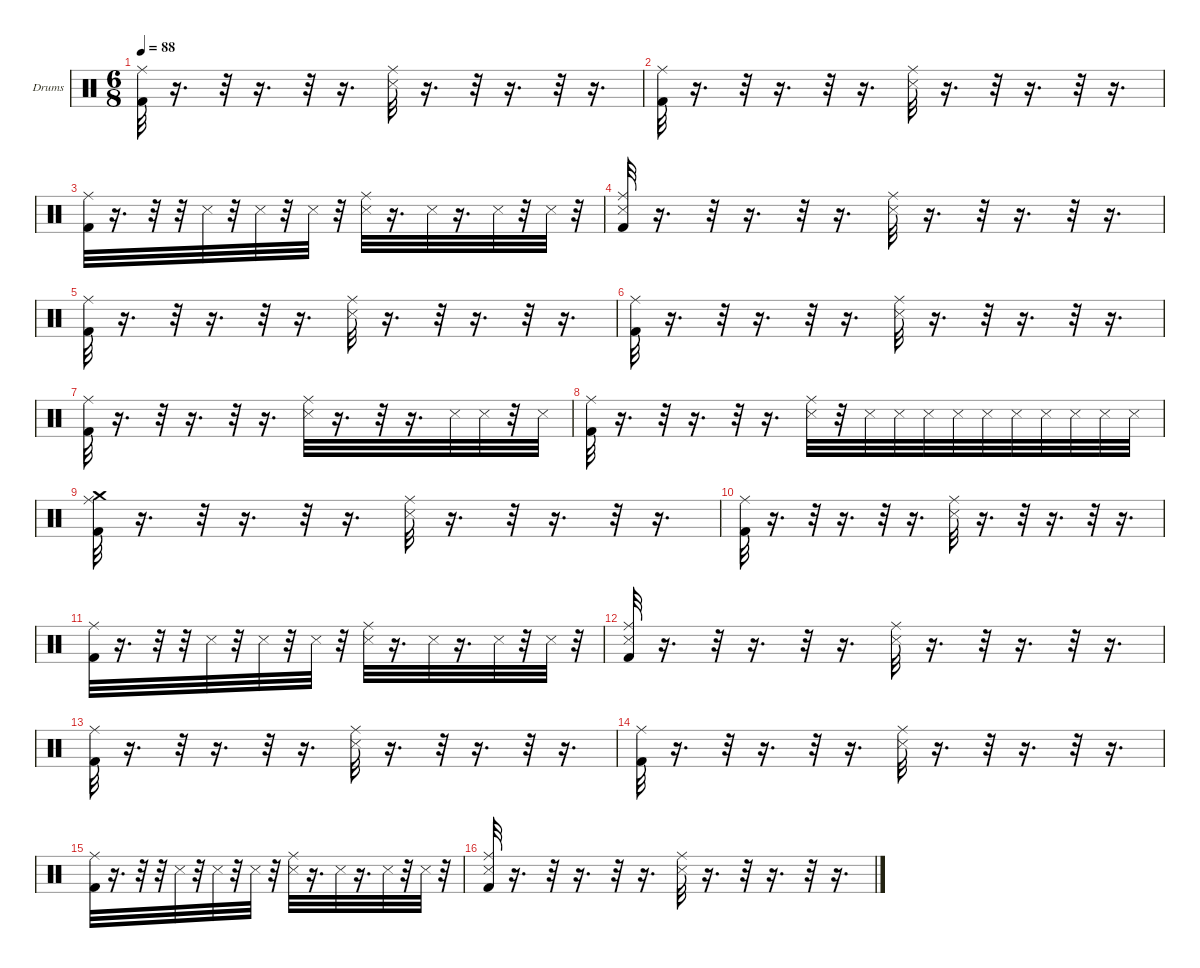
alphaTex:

\hideDynamics
\bracketExtendMode nobrackets
\firstSystemTrackNameOrientation horizontal
\otherSystemsTrackNameOrientation horizontal
\track ("Drumkit" "Drums") {instrument percussion}
\staff {score}
\articulation defaults
\ts (6 8)
\tempo 88
\clef neutral
\ks c
("Kick (hit) 2" "Ride (middle)").32{dy fff} r.16{d} r.32 r.16{d} r.32 r.16{d} ("Snare (side stick) 3" "Ride (middle)").32{dy ff} r.16{d} r.32 r.16{d} r.32 r.16{d} |
("Kick (hit) 2" "Ride (middle)").32{dy fff} r.16{d} r.32 r.16{d} r.32 r.16{d} ("Snare (side stick) 3" "Ride (middle)").32{dy ff} r.16{d} r.32 r.16{d} r.32 r.16{d} |
("Kick (hit) 2" "Ride (middle)").32{dy fff} r.16{d} r.32 r.32 "Snare (side stick) 3".32{dy f} r.32 "Snare (side stick) 3".32{dy ff} r.32 "Snare (side stick) 3".32{dy f} r.32 ("Snare (side stick) 3" "Ride (middle)").32{dy ff} r.16{d} "Snare (side stick) 3".32 r.16{d} "Snare (side stick) 3".32{dy f} r.32 "Snare (side stick) 3".32{dy mf} r.32 |
("Kick (hit) 2" "Snare (side stick) 3" "Ride (middle)").32{dy fff} r.16{d} r.32 r.16{d} r.32 r.16{d} ("Snare (side stick) 3" "Ride (middle)").32{dy ff} r.16{d} r.32 r.16{d} r.32 r.16{d} |
("Kick (hit) 2" "Ride (middle)").32{dy fff} r.16{d} r.32 r.16{d} r.32 r.16{d} ("Snare (side stick) 3" "Ride (middle)").32{dy ff} r.16{d} r.32 r.16{d} r.32 r.16{d} |
("Kick (hit) 2" "Ride (middle)").32{dy fff} r.16{d} r.32 r.16{d} r.32 r.16{d} ("Snare (side stick) 3" "Ride (middle)").32{dy ff} r.16{d} r.32 r.16{d} r.32 r.16{d} |
("Kick (hit) 2" "Ride (middle)").32{dy fff} r.16{d} r.32 r.16{d} r.32 r.16{d} ("Snare (side stick) 3" "Ride (middle)").32{dy ff} r.16{d} r.32 r.16{d} "Snare (side stick) 3".32{dy f} "Snare (side stick) 3".32{dy mf} r.32 "Snare (side stick) 3".32{dy f} |
("Kick (hit) 2" "Ride (middle)").32{dy fff} r.16{d} r.32 r.16{d} r.32 r.16{d} ("Snare (side stick) 3" "Ride (middle)").32{dy ff} r.32 "Snare (side stick) 3".32{dy p} "Snare (side stick) 3".32{dy mp} "Snare (side stick) 3".32{dy mf} "Snare (side stick) 3".32{dy mp} "Snare (side stick) 3".32{dy mf} "Snare (side stick) 3".32{dy f} "Snare (side stick) 3".32{dy mf} "Snare (side stick) 3".32{dy f} "Snare (side stick) 3".32{dy ff} "Snare (side stick) 3".32 |
("Kick (hit) 2" "Ride (middle)" "Crash medium (hit)").32{dy fff} r.16{d} r.32 r.16{d} r.32 r.16{d} ("Snare (side stick) 3" "Ride (middle)").32{dy ff} r.16{d} r.32 r.16{d} r.32 r.16{d} |
("Kick (hit) 2" "Ride (middle)").32{dy fff} r.16{d} r.32 r.16{d} r.32 r.16{d} ("Snare (side stick) 3" "Ride (middle)").32{dy ff} r.16{d} r.32 r.16{d} r.32 r.16{d} |
("Kick (hit) 2" "Ride (middle)").32{dy fff} r.16{d} r.32 r.32 "Snare (side stick) 3".32{dy f} r.32 "Snare (side stick) 3".32{dy ff} r.32 "Snare (side stick) 3".32{dy f} r.32 ("Snare (side stick) 3" "Ride (middle)").32{dy ff} r.16{d} "Snare (side stick) 3".32 r.16{d} "Snare (side stick) 3".32{dy f} r.32 "Snare (side stick) 3".32{dy mf} r.32 |
("Kick (hit) 2" "Snare (side stick) 3" "Ride (middle)").32{dy fff} r.16{d} r.32 r.16{d} r.32 r.16{d} ("Snare (side stick) 3" "Ride (middle)").32{dy ff} r.16{d} r.32 r.16{d} r.32 r.16{d} |
("Kick (hit) 2" "Ride (middle)").32{dy fff} r.16{d} r.32 r.16{d} r.32 r.16{d} ("Snare (side stick) 3" "Ride (middle)").32{dy ff} r.16{d} r.32 r.16{d} r.32 r.16{d} |
("Kick (hit) 2" "Ride (middle)").32{dy fff} r.16{d} r.32 r.16{d} r.32 r.16{d} ("Snare (side stick) 3" "Ride (middle)").32{dy ff} r.16{d} r.32 r.16{d} r.32 r.16{d} |
("Kick (hit) 2" "Ride (middle)").32{dy fff} r.16{d} r.32 r.32 "Snare (side stick) 3".32{dy f} r.32 "Snare (side stick) 3".32{dy ff} r.32 "Snare (side stick) 3".32{dy f} r.32 ("Snare (side stick) 3" "Ride (middle)").32{dy ff} r.16{d} "Snare (side stick) 3".32 r.16{d} "Snare (side stick) 3".32{dy f} r.32 "Snare (side stick) 3".32{dy mf} r.32 |
("Kick (hit) 2" "Snare (side stick) 3" "Ride (middle)").32{dy fff} r.16{d} r.32 r.16{d} r.32 r.16{d} ("Snare (side stick) 3" "Ride (middle)").32{dy ff} r.16{d} r.32 r.16{d} r.32 r.16{d}
